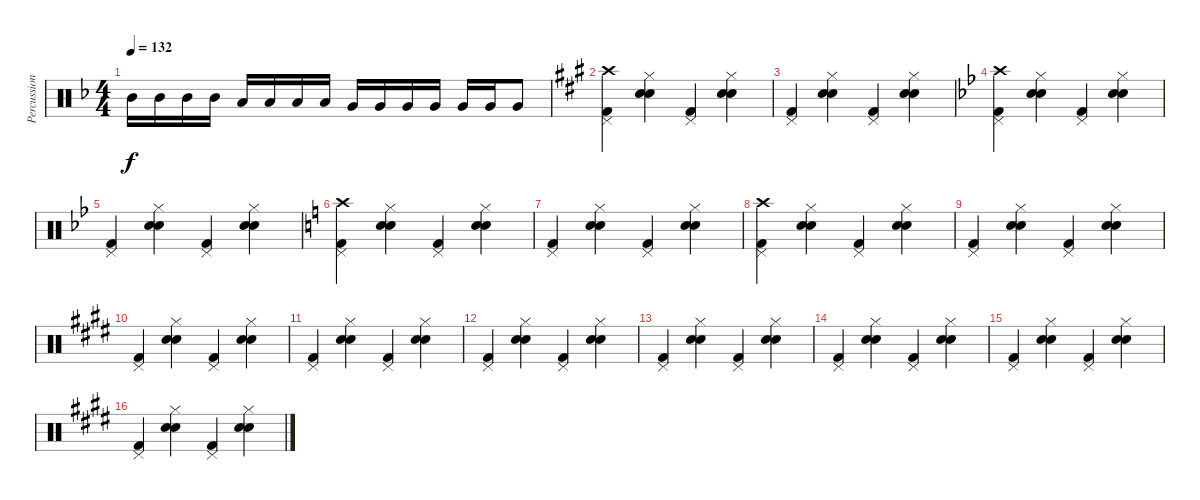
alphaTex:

\track ("Percussion" "Percussion") {instrument percussion}
\staff {score}
\articulation defaults
\ts (4 4)
\tempo 132
\clef neutral
\ks f "Mid Tom (hit)".16{dy f} "Mid Tom (hit)".16 "Mid Tom (hit)".16 "Mid Tom (hit)".16 "Low Tom (hit)".16 "Low Tom (hit)".16 "Low Tom (hit)".16 "Low Tom (hit)".16 "Very Low Tom (hit)".16 "Very Low Tom (hit)".16 "Very Low Tom (hit)".16 "Very Low Tom (hit)".16 "Very Low Tom (hit)".16 "Very Low Tom (hit)".16 "Very Low Tom (hit)".8
|
\ks f#minor
("Crash high (hit)" "Pedal Hi-Hat (hit)" "Kick (hit) 2").4 ("Hi-Hat (closed)" "Electric Snare (hit)" "Hand Clap (hit)").4 ("Pedal Hi-Hat (hit)" "Kick (hit) 2").4 ("Hi-Hat (closed)" "Electric Snare (hit)" "Hand Clap (hit)").4 |
("Pedal Hi-Hat (hit)" "Kick (hit) 2").4 ("Hi-Hat (closed)" "Electric Snare (hit)" "Hand Clap (hit)").4 ("Pedal Hi-Hat (hit)" "Kick (hit) 2").4 ("Hi-Hat (closed)" "Electric Snare (hit)" "Hand Clap (hit)").4 |
\ks gminor
("Crash high (hit)" "Pedal Hi-Hat (hit)" "Kick (hit) 2").4 ("Hi-Hat (closed)" "Electric Snare (hit)" "Hand Clap (hit)").4 ("Pedal Hi-Hat (hit)" "Kick (hit) 2").4 ("Hi-Hat (closed)" "Electric Snare (hit)" "Hand Clap (hit)").4 |
("Pedal Hi-Hat (hit)" "Kick (hit) 2").4 ("Hi-Hat (closed)" "Electric Snare (hit)" "Hand Clap (hit)").4 ("Pedal Hi-Hat (hit)" "Kick (hit) 2").4 ("Hi-Hat (closed)" "Electric Snare (hit)" "Hand Clap (hit)").4 |
\ks aminor
("Crash high (hit)" "Pedal Hi-Hat (hit)" "Kick (hit) 2").4 ("Hi-Hat (closed)" "Electric Snare (hit)" "Hand Clap (hit)").4 ("Pedal Hi-Hat (hit)" "Kick (hit) 2").4 ("Hi-Hat (closed)" "Electric Snare (hit)" "Hand Clap (hit)").4 |
("Pedal Hi-Hat (hit)" "Kick (hit) 2").4 ("Hi-Hat (closed)" "Electric Snare (hit)" "Hand Clap (hit)").4 ("Pedal Hi-Hat (hit)" "Kick (hit) 2").4 ("Hi-Hat (closed)" "Electric Snare (hit)" "Hand Clap (hit)").4 |
("Crash high (hit)" "Pedal Hi-Hat (hit)" "Kick (hit) 2").4 ("Hi-Hat (closed)" "Electric Snare (hit)" "Hand Clap (hit)").4 ("Pedal Hi-Hat (hit)" "Kick (hit) 2").4 ("Hi-Hat (closed)" "Electric Snare (hit)" "Hand Clap (hit)").4 |
("Pedal Hi-Hat (hit)" "Kick (hit) 2").4 ("Hi-Hat (closed)" "Electric Snare (hit)" "Hand Clap (hit)").4 ("Pedal Hi-Hat (hit)" "Kick (hit) 2").4 ("Hi-Hat (closed)" "Electric Snare (hit)" "Hand Clap (hit)").4 |
\ks e
("Pedal Hi-Hat (hit)" "Kick (hit) 2").4 ("Hi-Hat (closed)" "Electric Snare (hit)" "Hand Clap (hit)").4 ("Pedal Hi-Hat (hit)" "Kick (hit) 2").4 ("Hi-Hat (closed)" "Electric Snare (hit)" "Hand Clap (hit)").4 |
("Pedal Hi-Hat (hit)" "Kick (hit) 2").4 ("Hi-Hat (closed)" "Electric Snare (hit)" "Hand Clap (hit)").4 ("Pedal Hi-Hat (hit)" "Kick (hit) 2").4 ("Hi-Hat (closed)" "Electric Snare (hit)" "Hand Clap (hit)").4 |
("Pedal Hi-Hat (hit)" "Kick (hit) 2").4 ("Hi-Hat (closed)" "Electric Snare (hit)" "Hand Clap (hit)").4 ("Pedal Hi-Hat (hit)" "Kick (hit) 2").4 ("Hi-Hat (closed)" "Electric Snare (hit)" "Hand Clap (hit)").4 |
("Pedal Hi-Hat (hit)" "Kick (hit) 2").4 ("Hi-Hat (closed)" "Electric Snare (hit)" "Hand Clap (hit)").4 ("Pedal Hi-Hat (hit)" "Kick (hit) 2").4 ("Hi-Hat (closed)" "Electric Snare (hit)" "Hand Clap (hit)").4 |
("Pedal Hi-Hat (hit)" "Kick (hit) 2").4 ("Hi-Hat (closed)" "Electric Snare (hit)" "Hand Clap (hit)").4 ("Pedal Hi-Hat (hit)" "Kick (hit) 2").4 ("Hi-Hat (closed)" "Electric Snare (hit)" "Hand Clap (hit)").4 |
("Pedal Hi-Hat (hit)" "Kick (hit) 2").4 ("Hi-Hat (closed)" "Electric Snare (hit)" "Hand Clap (hit)").4 ("Pedal Hi-Hat (hit)" "Kick (hit) 2").4 ("Hi-Hat (closed)" "Electric Snare (hit)" "Hand Clap (hit)").4 |
("Pedal Hi-Hat (hit)" "Kick (hit) 2").4 ("Hi-Hat (closed)" "Electric Snare (hit)" "Hand Clap (hit)").4 ("Pedal Hi-Hat (hit)" "Kick (hit) 2").4 ("Hi-Hat (closed)" "Electric Snare (hit)" "Hand Clap (hit)").4
